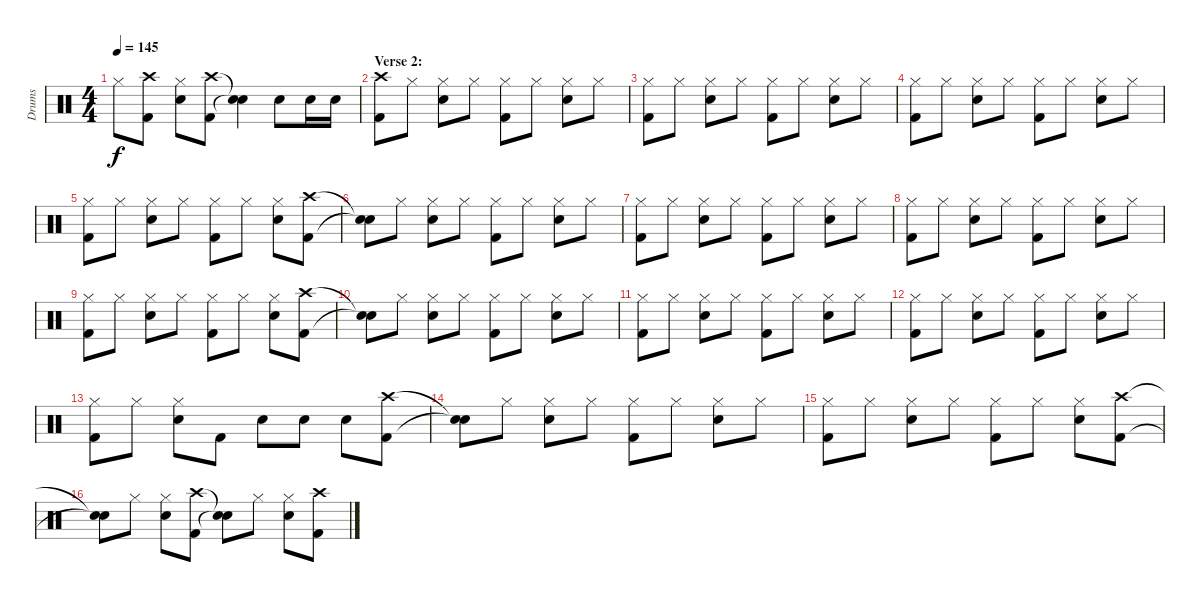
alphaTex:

\track ("Drums" "Drums") {instrument percussion}
\staff {score}
\articulation defaults
\ts (4 4)
\tempo 145
\clef neutral
\ks c "Hi-Hat (closed)".8{dy f}
("Crash high (hit)" "Kick (hit) 2").8 ("Hi-Hat (closed)" "Electric Snare (hit)").8 ("Crash high (hit)" "Kick (hit) 2").8 ("Snare (hit)"{t} "Snare (hit)"{t}).4 "Electric Snare (hit)".8 "Electric Snare (hit)".16 "Electric Snare (hit)".16 |
\section ("" "Verse 2:")
("Crash high (hit)" "Kick (hit) 2").8 "Hi-Hat (closed)".8 ("Hi-Hat (closed)" "Electric Snare (hit)").8 "Hi-Hat (closed)".8 ("Hi-Hat (closed)" "Kick (hit) 2").8 "Hi-Hat (closed)".8 ("Hi-Hat (closed)" "Electric Snare (hit)").8 "Hi-Hat (closed)".8 |
("Hi-Hat (closed)" "Kick (hit) 2").8 "Hi-Hat (closed)".8 ("Hi-Hat (closed)" "Electric Snare (hit)").8 "Hi-Hat (closed)".8 ("Hi-Hat (closed)" "Kick (hit) 2").8 "Hi-Hat (closed)".8 ("Hi-Hat (closed)" "Electric Snare (hit)").8 "Hi-Hat (closed)".8 |
("Hi-Hat (closed)" "Kick (hit) 2").8 "Hi-Hat (closed)".8 ("Hi-Hat (closed)" "Electric Snare (hit)").8 "Hi-Hat (closed)".8 ("Hi-Hat (closed)" "Kick (hit) 2").8 "Hi-Hat (closed)".8 ("Hi-Hat (closed)" "Electric Snare (hit)").8 "Hi-Hat (closed)".8 |
("Hi-Hat (closed)" "Kick (hit) 2").8 "Hi-Hat (closed)".8 ("Hi-Hat (closed)" "Electric Snare (hit)").8 "Hi-Hat (closed)".8 ("Hi-Hat (closed)" "Kick (hit) 2").8 "Hi-Hat (closed)".8 ("Hi-Hat (closed)" "Electric Snare (hit)").8 ("Crash high (hit)" "Kick (hit) 2").8 |
("Snare (hit)"{t} "Snare (hit)"{t}).8 "Hi-Hat (closed)".8 ("Hi-Hat (closed)" "Electric Snare (hit)").8 "Hi-Hat (closed)".8 ("Hi-Hat (closed)" "Kick (hit) 2").8 "Hi-Hat (closed)".8 ("Hi-Hat (closed)" "Electric Snare (hit)").8 "Hi-Hat (closed)".8 |
("Hi-Hat (closed)" "Kick (hit) 2").8 "Hi-Hat (closed)".8 ("Hi-Hat (closed)" "Electric Snare (hit)").8 "Hi-Hat (closed)".8 ("Hi-Hat (closed)" "Kick (hit) 2").8 "Hi-Hat (closed)".8 ("Hi-Hat (closed)" "Electric Snare (hit)").8 "Hi-Hat (closed)".8 |
("Hi-Hat (closed)" "Kick (hit) 2").8 "Hi-Hat (closed)".8 ("Hi-Hat (closed)" "Electric Snare (hit)").8 "Hi-Hat (closed)".8 ("Hi-Hat (closed)" "Kick (hit) 2").8 "Hi-Hat (closed)".8 ("Hi-Hat (closed)" "Electric Snare (hit)").8 "Hi-Hat (closed)".8 |
("Hi-Hat (closed)" "Kick (hit) 2").8 "Hi-Hat (closed)".8 ("Hi-Hat (closed)" "Electric Snare (hit)").8 "Hi-Hat (closed)".8 ("Hi-Hat (closed)" "Kick (hit) 2").8 "Hi-Hat (closed)".8 ("Hi-Hat (closed)" "Electric Snare (hit)").8 ("Crash high (hit)" "Kick (hit) 2").8 |
("Snare (hit)"{t} "Snare (hit)"{t}).8 "Hi-Hat (closed)".8 ("Hi-Hat (closed)" "Electric Snare (hit)").8 "Hi-Hat (closed)".8 ("Hi-Hat (closed)" "Kick (hit) 2").8 "Hi-Hat (closed)".8 ("Hi-Hat (closed)" "Electric Snare (hit)").8 "Hi-Hat (closed)".8 |
("Hi-Hat (closed)" "Kick (hit) 2").8 "Hi-Hat (closed)".8 ("Hi-Hat (closed)" "Electric Snare (hit)").8 "Hi-Hat (closed)".8 ("Hi-Hat (closed)" "Kick (hit) 2").8 "Hi-Hat (closed)".8 ("Hi-Hat (closed)" "Electric Snare (hit)").8 "Hi-Hat (closed)".8 |
("Hi-Hat (closed)" "Kick (hit) 2").8 "Hi-Hat (closed)".8 ("Hi-Hat (closed)" "Electric Snare (hit)").8 "Hi-Hat (closed)".8 ("Hi-Hat (closed)" "Kick (hit) 2").8 "Hi-Hat (closed)".8 ("Hi-Hat (closed)" "Electric Snare (hit)").8 "Hi-Hat (closed)".8 |
("Hi-Hat (closed)" "Kick (hit) 2").8 "Hi-Hat (closed)".8 ("Hi-Hat (closed)" "Electric Snare (hit)").8 "Kick (hit) 2".8 "Electric Snare (hit)".8 "Electric Snare (hit)".8 "Electric Snare (hit)".8 ("Crash high (hit)" "Kick (hit) 2").8 |
("Snare (hit)"{t} "Snare (hit)"{t}).8 "Hi-Hat (closed)".8 ("Hi-Hat (closed)" "Electric Snare (hit)").8 "Hi-Hat (closed)".8 ("Hi-Hat (closed)" "Kick (hit) 2").8 "Hi-Hat (closed)".8 ("Hi-Hat (closed)" "Electric Snare (hit)").8 "Hi-Hat (closed)".8 |
("Hi-Hat (closed)" "Kick (hit) 2").8 "Hi-Hat (closed)".8 ("Hi-Hat (closed)" "Electric Snare (hit)").8 "Hi-Hat (closed)".8 ("Hi-Hat (closed)" "Kick (hit) 2").8 "Hi-Hat (closed)".8 ("Hi-Hat (closed)" "Electric Snare (hit)").8 ("Crash high (hit)" "Kick (hit) 2").8 |
("Snare (hit)"{t} "Snare (hit)"{t}).8 "Hi-Hat (closed)".8 ("Hi-Hat (closed)" "Electric Snare (hit)").8 ("Crash high (hit)" "Kick (hit) 2").8 ("Snare (hit)"{t} "Snare (hit)"{t}).8 "Hi-Hat (closed)".8 ("Hi-Hat (closed)" "Electric Snare (hit)").8 ("Crash high (hit)" "Kick (hit) 2").8
